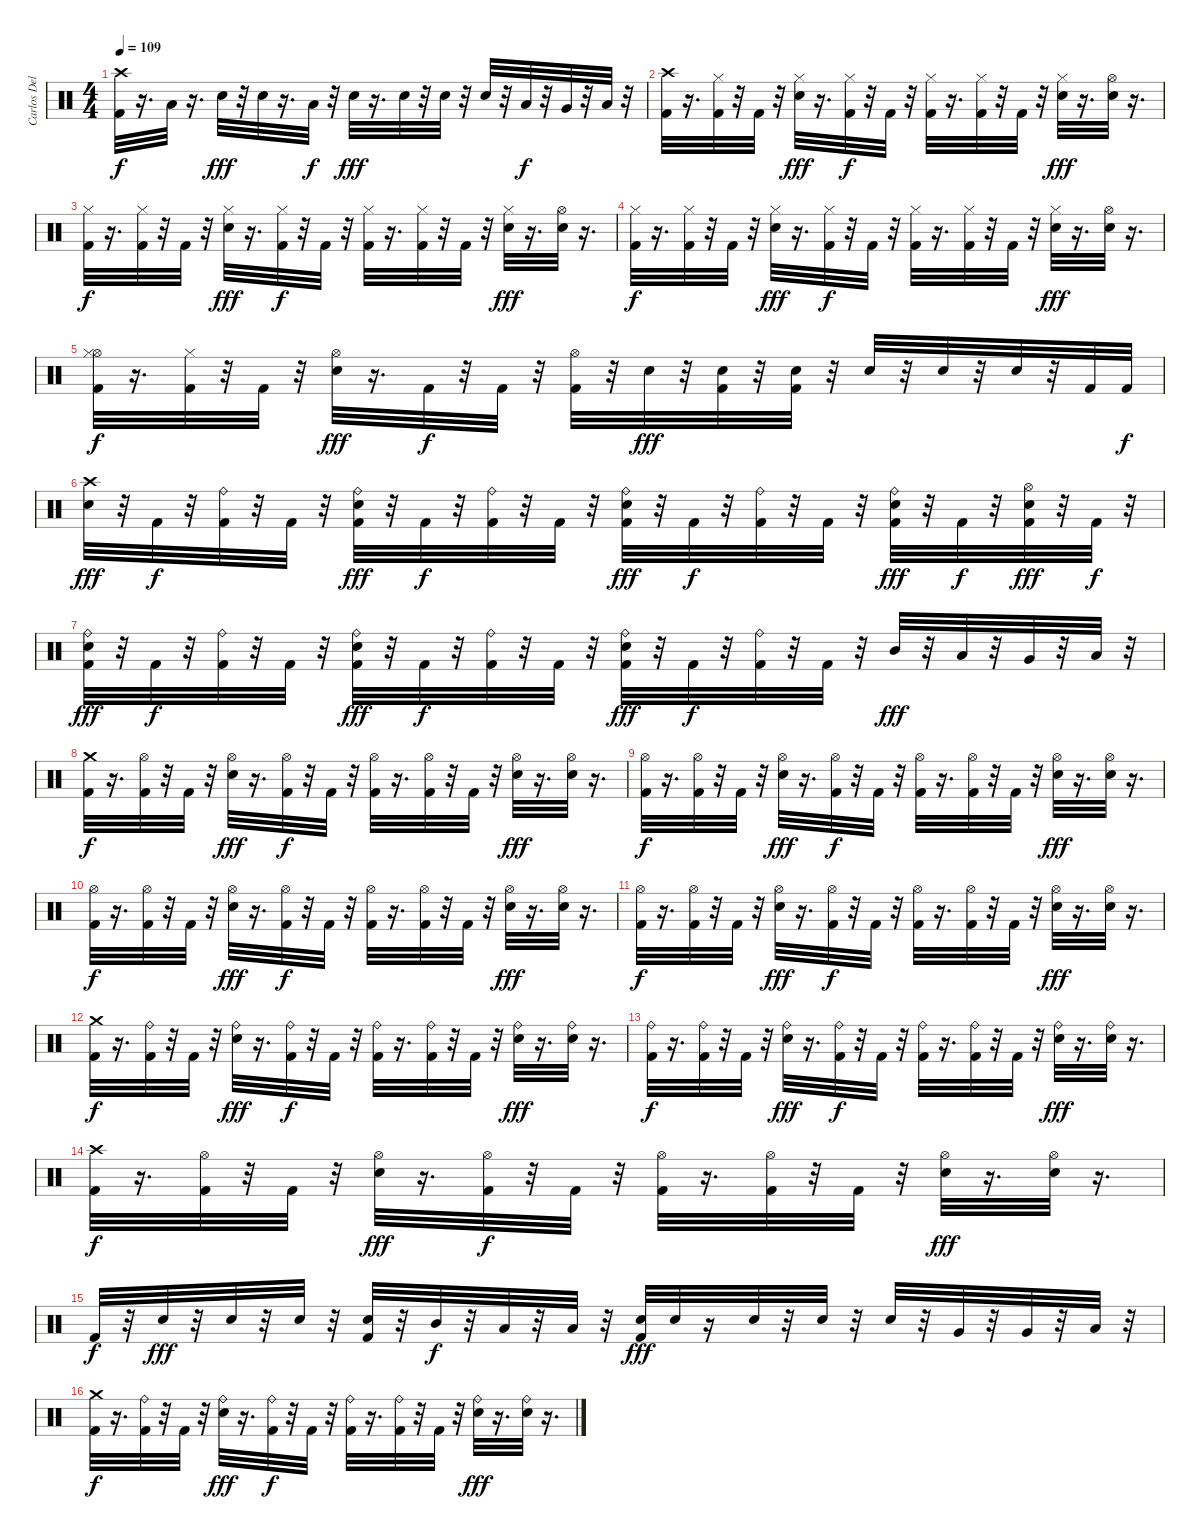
\track ("Carlos Delgado" "Carlos Del") {instrument percussion}
\staff {score}
\articulation defaults
\ts (4 4)
\tempo 109
\clef neutral
\ks c
("Kick (hit) 2" "Crash high (hit)").32{dy f} r.16{d} "Low Tom (hit)".32 r.16{d} "Electric Snare (hit)".32{dy fff} r.32 "Electric Snare (hit)".32 r.16{d} "Low Tom (hit)".32{dy f} r.32 "Electric Snare (hit)".32{dy fff} r.16{d} "Electric Snare (hit)".32 r.32 "Electric Snare (hit)".32 r.32 "Electric Snare (hit)".32 r.32 "Low Tom (hit)".32{dy f} r.32 "Very Low Tom (hit)".32 r.32 "Low Floor Tom (hit)".32 r.32 |
("Crash high (hit)" "Kick (hit) 2").32 r.16{d} ("Kick (hit) 2" "Hi-Hat (closed)").32 r.32 "Kick (hit) 2".32 r.32 ("Hi-Hat (closed)" "Electric Snare (hit)").32{dy fff} r.16{d} ("Hi-Hat (closed)" "Kick (hit) 2").32{dy f} r.32 "Kick (hit) 2".32 r.32 ("Kick (hit) 2" "Hi-Hat (closed)").32 r.16{d} ("Kick (hit) 2" "Hi-Hat (closed)").32 r.32 "Kick (hit) 2".32 r.32 ("Electric Snare (hit)" "Hi-Hat (closed)").32{dy fff} r.16{d} ("Hi-Hat (open)" "Electric Snare (hit)").32 r.16{d} |
("Kick (hit) 2" "Hi-Hat (closed)").32{dy f} r.16{d} ("Hi-Hat (closed)" "Kick (hit) 2").32 r.32 "Kick (hit) 2".32 r.32 ("Hi-Hat (closed)" "Electric Snare (hit)").32{dy fff} r.16{d} ("Kick (hit) 2" "Hi-Hat (closed)").32{dy f} r.32 "Kick (hit) 2".32 r.32 ("Hi-Hat (closed)" "Kick (hit) 2").32 r.16{d} ("Kick (hit) 2" "Hi-Hat (closed)").32 r.32 "Kick (hit) 2".32 r.32 ("Electric Snare (hit)" "Hi-Hat (closed)").32{dy fff} r.16{d} ("Electric Snare (hit)" "Hi-Hat (open)").32 r.16{d} |
("Hi-Hat (closed)" "Kick (hit) 2").32{dy f} r.16{d} ("Hi-Hat (closed)" "Kick (hit) 2").32 r.32 "Kick (hit) 2".32 r.32 ("Electric Snare (hit)" "Hi-Hat (closed)").32{dy fff} r.16{d} ("Kick (hit) 2" "Hi-Hat (closed)").32{dy f} r.32 "Kick (hit) 2".32 r.32 ("Hi-Hat (closed)" "Kick (hit) 2").32 r.16{d} ("Hi-Hat (closed)" "Kick (hit) 2").32 r.32 "Kick (hit) 2".32 r.32 ("Hi-Hat (closed)" "Electric Snare (hit)").32{dy fff} r.16{d} ("Electric Snare (hit)" "Hi-Hat (open)").32 r.16{d} |
("Hi-Hat (open)" "Hi-Hat (closed)" "Kick (hit) 2").32{dy f} r.16{d} ("Hi-Hat (closed)" "Kick (hit) 2").32 r.32 "Kick (hit) 2".32 r.32 ("Electric Snare (hit)" "Hi-Hat (open)").32{dy fff} r.16{d} "Kick (hit) 2".32{dy f} r.32 "Kick (hit) 2".32 r.32 ("Kick (hit) 2" "Hi-Hat (open)").32 r.32 "Electric Snare (hit)".32{dy fff} r.32 ("Kick (hit) 2" "Electric Snare (hit)").32 r.32 ("Electric Snare (hit)" "Kick (hit) 2").32 r.32 "Electric Snare (hit)".32 r.32 "Electric Snare (hit)".32 r.32 "Electric Snare (hit)".32 r.32 "Kick (hit) 2".32 "Kick (hit) 2".32{dy f} |
("Crash high (hit)" "Electric Snare (hit)").32{dy fff} r.32 "Kick (hit) 2".32{dy f} r.32 ("Kick (hit) 2" "Ride (bell)").32 r.32 "Kick (hit) 2".32 r.32 ("Ride (bell)" "Electric Snare (hit)" "Kick (hit) 2").32{dy fff} r.32 "Kick (hit) 2".32{dy f} r.32 ("Ride (bell)" "Kick (hit) 2").32 r.32 "Kick (hit) 2".32 r.32 ("Electric Snare (hit)" "Ride (bell)" "Kick (hit) 2").32{dy fff} r.32 "Kick (hit) 2".32{dy f} r.32 ("Ride (bell)" "Kick (hit) 2").32 r.32 "Kick (hit) 2".32 r.32 ("Ride (bell)" "Kick (hit) 2" "Electric Snare (hit)").32{dy fff} r.32 "Kick (hit) 2".32{dy f} r.32 ("Electric Snare (hit)" "Kick (hit) 2" "Hi-Hat (open)").32{dy fff} r.32 "Kick (hit) 2".32{dy f} r.32 |
("Electric Snare (hit)" "Ride (bell)" "Kick (hit) 2").32{dy fff} r.32 "Kick (hit) 2".32{dy f} r.32 ("Ride (bell)" "Kick (hit) 2").32 r.32 "Kick (hit) 2".32 r.32 ("Ride (bell)" "Electric Snare (hit)" "Kick (hit) 2").32{dy fff} r.32 "Kick (hit) 2".32{dy f} r.32 ("Kick (hit) 2" "Ride (bell)").32 r.32 "Kick (hit) 2".32 r.32 ("Electric Snare (hit)" "Ride (bell)" "Kick (hit) 2").32{dy fff} r.32 "Kick (hit) 2".32{dy f} r.32 ("Ride (bell)" "Kick (hit) 2").32 r.32 "Kick (hit) 2".32 r.32 "Mid Tom (hit)".32{dy fff} r.32 "Low Tom (hit)".32 r.32 "Very Low Tom (hit)".32 r.32 "Low Floor Tom (hit)".32 r.32 |
("Crash medium (hit)" "Kick (hit) 2").32{dy f} r.16{d} ("Hi-Hat (open)" "Kick (hit) 2").32 r.32 "Kick (hit) 2".32 r.32 ("Electric Snare (hit)" "Hi-Hat (open)").32{dy fff} r.16{d} ("Kick (hit) 2" "Hi-Hat (open)").32{dy f} r.32 "Kick (hit) 2".32 r.32 ("Hi-Hat (open)" "Kick (hit) 2").32 r.16{d} ("Hi-Hat (open)" "Kick (hit) 2").32 r.32 "Kick (hit) 2".32 r.32 ("Hi-Hat (open)" "Electric Snare (hit)").32{dy fff} r.16{d} ("Electric Snare (hit)" "Hi-Hat (open)").32 r.16{d} |
("Kick (hit) 2" "Hi-Hat (open)").32{dy f} r.16{d} ("Hi-Hat (open)" "Kick (hit) 2").32 r.32 "Kick (hit) 2".32 r.32 ("Hi-Hat (open)" "Electric Snare (hit)").32{dy fff} r.16{d} ("Hi-Hat (open)" "Kick (hit) 2").32{dy f} r.32 "Kick (hit) 2".32 r.32 ("Hi-Hat (open)" "Kick (hit) 2").32 r.16{d} ("Kick (hit) 2" "Hi-Hat (open)").32 r.32 "Kick (hit) 2".32 r.32 ("Electric Snare (hit)" "Hi-Hat (open)").32{dy fff} r.16{d} ("Electric Snare (hit)" "Hi-Hat (open)").32 r.16{d} |
("Hi-Hat (open)" "Kick (hit) 2").32{dy f} r.16{d} ("Kick (hit) 2" "Hi-Hat (open)").32 r.32 "Kick (hit) 2".32 r.32 ("Hi-Hat (open)" "Electric Snare (hit)").32{dy fff} r.16{d} ("Kick (hit) 2" "Hi-Hat (open)").32{dy f} r.32 "Kick (hit) 2".32 r.32 ("Kick (hit) 2" "Hi-Hat (open)").32 r.16{d} ("Hi-Hat (open)" "Kick (hit) 2").32 r.32 "Kick (hit) 2".32 r.32 ("Electric Snare (hit)" "Hi-Hat (open)").32{dy fff} r.16{d} ("Electric Snare (hit)" "Hi-Hat (open)").32 r.16{d} |
("Hi-Hat (open)" "Kick (hit) 2").32{dy f} r.16{d} ("Hi-Hat (open)" "Kick (hit) 2").32 r.32 "Kick (hit) 2".32 r.32 ("Electric Snare (hit)" "Hi-Hat (open)").32{dy fff} r.16{d} ("Kick (hit) 2" "Hi-Hat (open)").32{dy f} r.32 "Kick (hit) 2".32 r.32 ("Hi-Hat (open)" "Kick (hit) 2").32 r.16{d} ("Hi-Hat (open)" "Kick (hit) 2").32 r.32 "Kick (hit) 2".32 r.32 ("Hi-Hat (open)" "Electric Snare (hit)").32{dy fff} r.16{d} ("Hi-Hat (open)" "Electric Snare (hit)").32 r.16{d} |
("Kick (hit) 2" "Crash medium (hit)").32{dy f} r.16{d} ("Kick (hit) 2" "Ride (bell)").32 r.32 "Kick (hit) 2".32 r.32 ("Electric Snare (hit)" "Ride (bell)").32{dy fff} r.16{d} ("Kick (hit) 2" "Ride (bell)").32{dy f} r.32 "Kick (hit) 2".32 r.32 ("Kick (hit) 2" "Ride (bell)").32 r.16{d} ("Ride (bell)" "Kick (hit) 2").32 r.32 "Kick (hit) 2".32 r.32 ("Ride (bell)" "Electric Snare (hit)").32{dy fff} r.16{d} ("Ride (bell)" "Electric Snare (hit)").32 r.16{d} |
("Ride (bell)" "Kick (hit) 2").32{dy f} r.16{d} ("Kick (hit) 2" "Ride (bell)").32 r.32 "Kick (hit) 2".32 r.32 ("Electric Snare (hit)" "Ride (bell)").32{dy fff} r.16{d} ("Ride (bell)" "Kick (hit) 2").32{dy f} r.32 "Kick (hit) 2".32 r.32 ("Kick (hit) 2" "Ride (bell)").32 r.16{d} ("Ride (bell)" "Kick (hit) 2").32 r.32 "Kick (hit) 2".32 r.32 ("Ride (bell)" "Electric Snare (hit)").32{dy fff} r.16{d} ("Ride (bell)" "Electric Snare (hit)").32 r.16{d} |
("Kick (hit) 2" "Crash high (hit)").32{dy f} r.16{d} ("Kick (hit) 2" "Hi-Hat (open)").32 r.32 "Kick (hit) 2".32 r.32 ("Electric Snare (hit)" "Hi-Hat (open)").32{dy fff} r.16{d} ("Kick (hit) 2" "Hi-Hat (open)").32{dy f} r.32 "Kick (hit) 2".32 r.32 ("Kick (hit) 2" "Hi-Hat (open)").32 r.16{d} ("Kick (hit) 2" "Hi-Hat (open)").32 r.32 "Kick (hit) 2".32 r.32 ("Electric Snare (hit)" "Hi-Hat (open)").32{dy fff} r.16{d} ("Hi-Hat (open)" "Electric Snare (hit)").32 r.16{d} |
"Kick (hit) 2".32{dy f} r.32 "Electric Snare (hit)".32{dy fff} r.32 "Electric Snare (hit)".32 r.32 "Electric Snare (hit)".32 r.32 ("Electric Snare (hit)" "Kick (hit) 2").32 r.32 "Mid Tom (hit)".32{dy f} r.32 "Low Tom (hit)".32 r.32 "Low Floor Tom (hit)".32 r.32 ("Electric Snare (hit)" "Kick (hit) 2").32{dy fff} "Electric Snare (hit)".32 r.16 "Electric Snare (hit)".32 r.32 "Electric Snare (hit)".32 r.32 "Electric Snare (hit)".32 r.32 "Very Low Tom (hit)".32 r.32 "Very Low Tom (hit)".32 r.32 "Low Floor Tom (hit)".32 r.32 |
("Crash medium (hit)" "Kick (hit) 2").32{dy f} r.16{d} ("Kick (hit) 2" "Ride (bell)").32 r.32 "Kick (hit) 2".32 r.32 ("Ride (bell)" "Electric Snare (hit)").32{dy fff} r.16{d} ("Kick (hit) 2" "Ride (bell)").32{dy f} r.32 "Kick (hit) 2".32 r.32 ("Kick (hit) 2" "Ride (bell)").32 r.16{d} ("Ride (bell)" "Kick (hit) 2").32 r.32 "Kick (hit) 2".32 r.32 ("Electric Snare (hit)" "Ride (bell)").32{dy fff} r.16{d} ("Electric Snare (hit)" "Ride (bell)").32 r.16{d}
